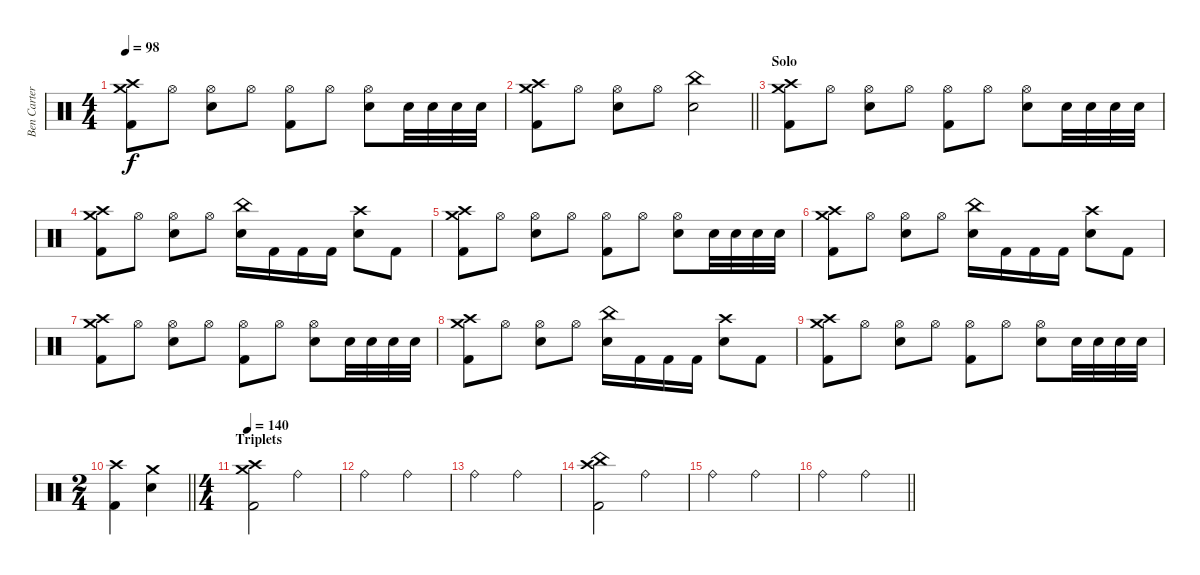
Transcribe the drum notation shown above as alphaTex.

\track ("Ben Carter" "Ben Carter") {instrument percussion}
\staff {score}
\articulation defaults
\ts (4 4)
\tempo 98
\clef neutral
\ks c
("Crash medium (hit)" "Crash high (hit)" "Kick (hit) 2").8{dy f} "Hi-Hat (open)".8 ("Hi-Hat (open)" "Snare (hit) 2").8 "Hi-Hat (open)".8 ("Hi-Hat (open)" "Kick (hit) 2").8 "Hi-Hat (open)".8 ("Hi-Hat (open)" "Snare (hit) 2").8 "Snare (hit) 2".32 "Snare (hit) 2".32 "Snare (hit) 2".32 "Snare (hit) 2".32 |
\barLineRight lightlight
("Crash medium (hit)" "Crash high (hit)" "Kick (hit) 2").8 "Hi-Hat (open)".8 ("Hi-Hat (open)" "Snare (hit) 2").8 "Hi-Hat (open)".8 ("China (hit)" "Snare (hit) 2").2 |
\section ("" "Solo")
("Crash medium (hit)" "Crash high (hit)" "Kick (hit) 2").8 "Hi-Hat (open)".8 ("Hi-Hat (open)" "Snare (hit) 2").8 "Hi-Hat (open)".8 ("Hi-Hat (open)" "Kick (hit) 2").8 "Hi-Hat (open)".8 ("Hi-Hat (open)" "Snare (hit) 2").8 "Snare (hit) 2".32 "Snare (hit) 2".32 "Snare (hit) 2".32 "Snare (hit) 2".32 |
("Crash medium (hit)" "Crash high (hit)" "Kick (hit) 2").8 "Hi-Hat (open)".8 ("Hi-Hat (open)" "Snare (hit) 2").8 "Hi-Hat (open)".8 ("China (hit)" "Snare (hit) 2").16 "Kick (hit) 2".16 "Kick (hit) 2".16 "Kick (hit) 2".16 ("Crash high (hit)" "Snare (hit) 2").8 "Kick (hit) 2".8 |
("Crash medium (hit)" "Crash high (hit)" "Kick (hit) 2").8 "Hi-Hat (open)".8 ("Hi-Hat (open)" "Snare (hit) 2").8 "Hi-Hat (open)".8 ("Hi-Hat (open)" "Kick (hit) 2").8 "Hi-Hat (open)".8 ("Hi-Hat (open)" "Snare (hit) 2").8 "Snare (hit) 2".32 "Snare (hit) 2".32 "Snare (hit) 2".32 "Snare (hit) 2".32 |
("Crash medium (hit)" "Crash high (hit)" "Kick (hit) 2").8 "Hi-Hat (open)".8 ("Hi-Hat (open)" "Snare (hit) 2").8 "Hi-Hat (open)".8 ("China (hit)" "Snare (hit) 2").16 "Kick (hit) 2".16 "Kick (hit) 2".16 "Kick (hit) 2".16 ("Crash high (hit)" "Snare (hit) 2").8 "Kick (hit) 2".8 |
("Crash medium (hit)" "Crash high (hit)" "Kick (hit) 2").8 "Hi-Hat (open)".8 ("Hi-Hat (open)" "Snare (hit) 2").8 "Hi-Hat (open)".8 ("Hi-Hat (open)" "Kick (hit) 2").8 "Hi-Hat (open)".8 ("Hi-Hat (open)" "Snare (hit) 2").8 "Snare (hit) 2".32 "Snare (hit) 2".32 "Snare (hit) 2".32 "Snare (hit) 2".32 |
("Crash medium (hit)" "Crash high (hit)" "Kick (hit) 2").8 "Hi-Hat (open)".8 ("Hi-Hat (open)" "Snare (hit) 2").8 "Hi-Hat (open)".8 ("China (hit)" "Snare (hit) 2").16 "Kick (hit) 2".16 "Kick (hit) 2".16 "Kick (hit) 2".16 ("Crash high (hit)" "Snare (hit) 2").8 "Kick (hit) 2".8 |
("Crash medium (hit)" "Crash high (hit)" "Kick (hit) 2").8 "Hi-Hat (open)".8 ("Hi-Hat (open)" "Snare (hit) 2").8 "Hi-Hat (open)".8 ("Hi-Hat (open)" "Kick (hit) 2").8 "Hi-Hat (open)".8 ("Hi-Hat (open)" "Snare (hit) 2").8 "Snare (hit) 2".32 "Snare (hit) 2".32 "Snare (hit) 2".32 "Snare (hit) 2".32 |
\ts (2 4)
\barLineRight lightlight
("Crash high (hit)" "Kick (hit) 2").4 ("Crash medium (hit)" "Snare (hit) 2").4 |
\ts (4 4)
\section ("" "Triplets")
\tempo 140
("Crash medium (hit)" "Crash high (hit)" "Kick (hit) 2").2 "Ride (bell)".2 |
"Ride (bell)".2 "Ride (bell)".2 |
"Ride (bell)".2 "Ride (bell)".2 |
("Crash high (hit)" "China (hit)" "Kick (hit) 2").2 "Ride (bell)".2 |
"Ride (bell)".2 "Ride (bell)".2 |
\barLineRight lightlight "Ride (bell)".2 "Ride (bell)".2
